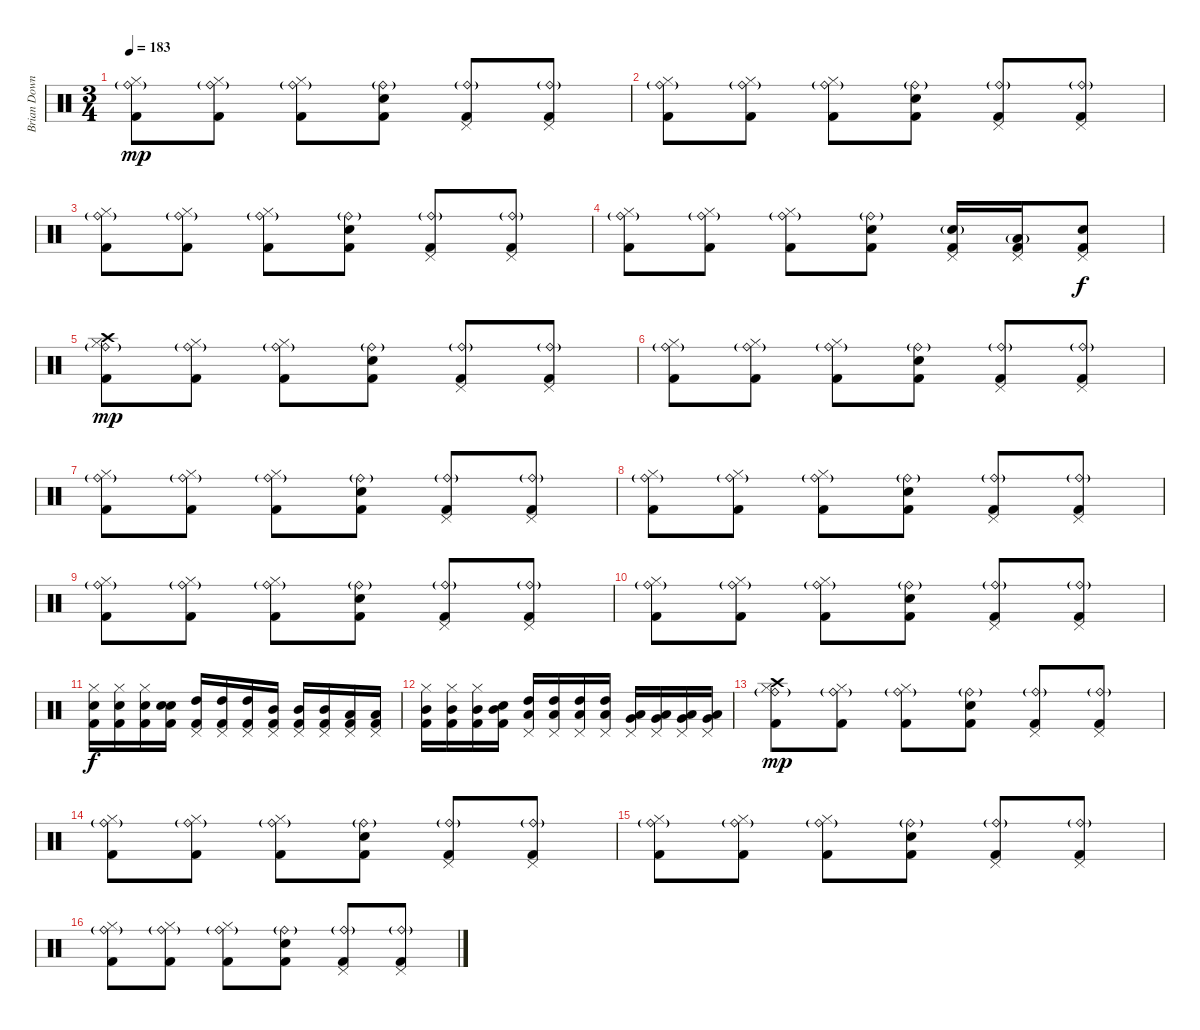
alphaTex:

\track ("Brian Downey" "Brian Down") {instrument percussion}
\staff {score}
\articulation defaults
\ts (3 4)
\tempo 183
\clef neutral
\ks c
("Ride (bell)"{g} "Hi-Hat (closed)" "Kick (hit) 2").8{dy mp} ("Ride (bell)"{g} "Hi-Hat (closed)" "Kick (hit) 2").8 ("Ride (bell)"{g} "Hi-Hat (closed)" "Kick (hit) 2").8 ("Ride (bell)"{g} "Snare (hit) 2" "Kick (hit) 2").8 ("Ride (bell)"{g} "Pedal Hi-Hat (hit)" "Kick (hit) 2").8 ("Ride (bell)"{g} "Pedal Hi-Hat (hit)" "Kick (hit) 2").8 |
("Ride (bell)"{g} "Hi-Hat (closed)" "Kick (hit) 2").8 ("Ride (bell)"{g} "Hi-Hat (closed)" "Kick (hit) 2").8 ("Ride (bell)"{g} "Hi-Hat (closed)" "Kick (hit) 2").8 ("Ride (bell)"{g} "Snare (hit) 2" "Kick (hit) 2").8 ("Ride (bell)"{g} "Pedal Hi-Hat (hit)" "Kick (hit) 2").8 ("Ride (bell)"{g} "Pedal Hi-Hat (hit)" "Kick (hit) 2").8 |
("Ride (bell)"{g} "Hi-Hat (closed)" "Kick (hit) 2").8 ("Ride (bell)"{g} "Hi-Hat (closed)" "Kick (hit) 2").8 ("Ride (bell)"{g} "Hi-Hat (closed)" "Kick (hit) 2").8 ("Ride (bell)"{g} "Snare (hit) 2" "Kick (hit) 2").8 ("Ride (bell)"{g} "Pedal Hi-Hat (hit)" "Kick (hit) 2").8 ("Ride (bell)"{g} "Pedal Hi-Hat (hit)" "Kick (hit) 2").8 |
("Ride (bell)"{g} "Hi-Hat (closed)" "Kick (hit) 2").8 ("Ride (bell)"{g} "Hi-Hat (closed)" "Kick (hit) 2").8 ("Ride (bell)"{g} "Hi-Hat (closed)" "Kick (hit) 2").8 ("Ride (bell)"{g} "Snare (hit) 2" "Kick (hit) 2").8 ("Electric Snare (hit)"{g} "Pedal Hi-Hat (hit)" "Kick (hit) 2").16 ("Low Tom (hit)"{g} "Pedal Hi-Hat (hit)" "Kick (hit) 2").16 ("Snare (hit) 2" "Pedal Hi-Hat (hit)" "Kick (hit) 2").8{dy f} |
("Crash high (hit)" "Ride (bell)"{g} "Hi-Hat (closed)" "Kick (hit) 2").8{dy mp} ("Ride (bell)"{g} "Hi-Hat (closed)" "Kick (hit) 2").8 ("Ride (bell)"{g} "Hi-Hat (closed)" "Kick (hit) 2").8 ("Ride (bell)"{g} "Snare (hit) 2" "Kick (hit) 2").8 ("Ride (bell)"{g} "Pedal Hi-Hat (hit)" "Kick (hit) 2").8 ("Ride (bell)"{g} "Pedal Hi-Hat (hit)" "Kick (hit) 2").8 |
("Ride (bell)"{g} "Hi-Hat (closed)" "Kick (hit) 2").8 ("Ride (bell)"{g} "Hi-Hat (closed)" "Kick (hit) 2").8 ("Ride (bell)"{g} "Hi-Hat (closed)" "Kick (hit) 2").8 ("Ride (bell)"{g} "Snare (hit) 2" "Kick (hit) 2").8 ("Ride (bell)"{g} "Pedal Hi-Hat (hit)" "Kick (hit) 2").8 ("Ride (bell)"{g} "Pedal Hi-Hat (hit)" "Kick (hit) 2").8 |
("Ride (bell)"{g} "Hi-Hat (closed)" "Kick (hit) 2").8 ("Ride (bell)"{g} "Hi-Hat (closed)" "Kick (hit) 2").8 ("Ride (bell)"{g} "Hi-Hat (closed)" "Kick (hit) 2").8 ("Ride (bell)"{g} "Snare (hit) 2" "Kick (hit) 2").8 ("Ride (bell)"{g} "Pedal Hi-Hat (hit)" "Kick (hit) 2").8 ("Ride (bell)"{g} "Pedal Hi-Hat (hit)" "Kick (hit) 2").8 |
("Ride (bell)"{g} "Hi-Hat (closed)" "Kick (hit) 2").8 ("Ride (bell)"{g} "Hi-Hat (closed)" "Kick (hit) 2").8 ("Ride (bell)"{g} "Hi-Hat (closed)" "Kick (hit) 2").8 ("Ride (bell)"{g} "Snare (hit) 2" "Kick (hit) 2").8 ("Ride (bell)"{g} "Pedal Hi-Hat (hit)" "Kick (hit) 2").8 ("Ride (bell)"{g} "Pedal Hi-Hat (hit)" "Kick (hit) 2").8 |
("Ride (bell)"{g} "Hi-Hat (closed)" "Kick (hit) 2").8 ("Ride (bell)"{g} "Hi-Hat (closed)" "Kick (hit) 2").8 ("Ride (bell)"{g} "Hi-Hat (closed)" "Kick (hit) 2").8 ("Ride (bell)"{g} "Snare (hit) 2" "Kick (hit) 2").8 ("Ride (bell)"{g} "Pedal Hi-Hat (hit)" "Kick (hit) 2").8 ("Ride (bell)"{g} "Pedal Hi-Hat (hit)" "Kick (hit) 2").8 |
("Ride (bell)"{g} "Hi-Hat (closed)" "Kick (hit) 2").8 ("Ride (bell)"{g} "Hi-Hat (closed)" "Kick (hit) 2").8 ("Ride (bell)"{g} "Hi-Hat (closed)" "Kick (hit) 2").8 ("Ride (bell)"{g} "Snare (hit) 2" "Kick (hit) 2").8 ("Ride (bell)"{g} "Pedal Hi-Hat (hit)" "Kick (hit) 2").8 ("Ride (bell)"{g} "Pedal Hi-Hat (hit)" "Kick (hit) 2").8 |
("Electric Snare (hit)" "Hi-Hat (closed)" "Kick (hit) 2").16{dy f} ("Electric Snare (hit)" "Hi-Hat (closed)" "Kick (hit) 2").16 ("Electric Snare (hit)" "Hi-Hat (closed)" "Kick (hit) 2").16 ("Electric Snare (hit)" "Snare (hit) 2" "Kick (hit) 2").16 ("High Tom (hit)" "Pedal Hi-Hat (hit)" "Kick (hit) 2").16 ("High Tom (hit)" "Pedal Hi-Hat (hit)" "Kick (hit) 2").16 ("High Tom (hit)" "Pedal Hi-Hat (hit)" "Kick (hit) 2").16 ("Mid Tom (hit)" "Pedal Hi-Hat (hit)" "Kick (hit) 2").16 ("Mid Tom (hit)" "Pedal Hi-Hat (hit)" "Kick (hit) 2").16 ("Mid Tom (hit)" "Pedal Hi-Hat (hit)" "Kick (hit) 2").16 ("Low Tom (hit)" "Pedal Hi-Hat (hit)" "Kick (hit) 2").16 ("Low Tom (hit)" "Pedal Hi-Hat (hit)" "Kick (hit) 2").16 |
("Mid Tom (hit)" "Hi-Hat (closed)" "Kick (hit) 2").16 ("Mid Tom (hit)" "Hi-Hat (closed)" "Kick (hit) 2").16 ("Mid Tom (hit)" "Hi-Hat (closed)" "Kick (hit) 2").16 ("Mid Tom (hit)" "Snare (hit) 2" "Kick (hit) 2").16 ("Low Tom (hit)" "Pedal Hi-Hat (hit)" "High Tom (hit)").16 ("Low Tom (hit)" "Pedal Hi-Hat (hit)" "High Tom (hit)").16 ("Low Tom (hit)" "Pedal Hi-Hat (hit)" "High Tom (hit)").16 ("Low Tom (hit)" "Pedal Hi-Hat (hit)" "High Tom (hit)").16 ("Very Low Tom (hit)" "Pedal Hi-Hat (hit)" "Low Tom (hit)").16 ("Very Low Tom (hit)" "Pedal Hi-Hat (hit)" "Low Tom (hit)").16 ("Very Low Tom (hit)" "Pedal Hi-Hat (hit)" "Low Tom (hit)").16 ("Very Low Tom (hit)" "Pedal Hi-Hat (hit)" "Low Tom (hit)").16 |
("Crash high (hit)" "Ride (bell)"{g} "Hi-Hat (closed)" "Kick (hit) 2").8{dy mp} ("Ride (bell)"{g} "Hi-Hat (closed)" "Kick (hit) 2").8 ("Ride (bell)"{g} "Hi-Hat (closed)" "Kick (hit) 2").8 ("Ride (bell)"{g} "Snare (hit) 2" "Kick (hit) 2").8 ("Ride (bell)"{g} "Pedal Hi-Hat (hit)" "Kick (hit) 2").8 ("Ride (bell)"{g} "Pedal Hi-Hat (hit)" "Kick (hit) 2").8 |
("Ride (bell)"{g} "Hi-Hat (closed)" "Kick (hit) 2").8 ("Ride (bell)"{g} "Hi-Hat (closed)" "Kick (hit) 2").8 ("Ride (bell)"{g} "Hi-Hat (closed)" "Kick (hit) 2").8 ("Ride (bell)"{g} "Snare (hit) 2" "Kick (hit) 2").8 ("Ride (bell)"{g} "Pedal Hi-Hat (hit)" "Kick (hit) 2").8 ("Ride (bell)"{g} "Pedal Hi-Hat (hit)" "Kick (hit) 2").8 |
("Ride (bell)"{g} "Hi-Hat (closed)" "Kick (hit) 2").8 ("Ride (bell)"{g} "Hi-Hat (closed)" "Kick (hit) 2").8 ("Ride (bell)"{g} "Hi-Hat (closed)" "Kick (hit) 2").8 ("Ride (bell)"{g} "Snare (hit) 2" "Kick (hit) 2").8 ("Ride (bell)"{g} "Pedal Hi-Hat (hit)" "Kick (hit) 2").8 ("Ride (bell)"{g} "Pedal Hi-Hat (hit)" "Kick (hit) 2").8 |
("Ride (bell)"{g} "Hi-Hat (closed)" "Kick (hit) 2").8 ("Ride (bell)"{g} "Hi-Hat (closed)" "Kick (hit) 2").8 ("Ride (bell)"{g} "Hi-Hat (closed)" "Kick (hit) 2").8 ("Ride (bell)"{g} "Snare (hit) 2" "Kick (hit) 2").8 ("Ride (bell)"{g} "Pedal Hi-Hat (hit)" "Kick (hit) 2").8 ("Ride (bell)"{g} "Pedal Hi-Hat (hit)" "Kick (hit) 2").8
